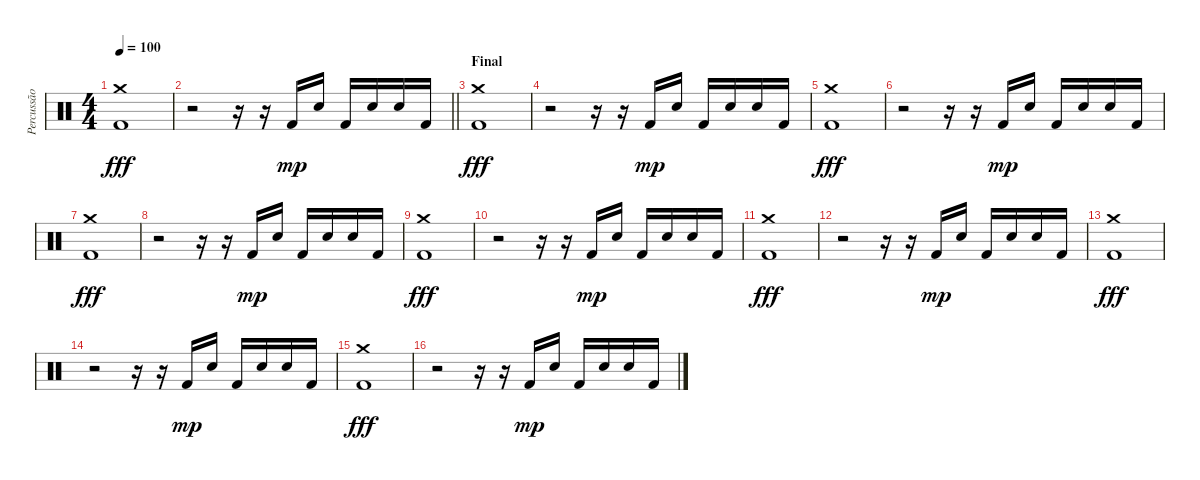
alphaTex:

\track ("Percussão" "Percussão") {instrument percussion}
\staff {score}
\articulation defaults
\ts (4 4)
\tempo 100
\clef neutral
\ks c
("Crash medium (hit)" "Kick (hit) 2").1{dy fff} |
\barLineRight lightlight
r.2 r.16 r.16 "Kick (hit) 2".16{dy mp} "Snare (hit) 2".16 "Kick (hit) 2".16 "Snare (hit) 2".16 "Snare (hit) 2".16 "Kick (hit) 2".16 |
\section ("" "Final")
("Crash medium (hit)" "Kick (hit) 2").1{dy fff} |
r.2 r.16 r.16 "Kick (hit) 2".16{dy mp} "Snare (hit) 2".16 "Kick (hit) 2".16 "Snare (hit) 2".16 "Snare (hit) 2".16 "Kick (hit) 2".16 |
("Crash medium (hit)" "Kick (hit) 2").1{dy fff} |
r.2 r.16 r.16 "Kick (hit) 2".16{dy mp} "Snare (hit) 2".16 "Kick (hit) 2".16 "Snare (hit) 2".16 "Snare (hit) 2".16 "Kick (hit) 2".16 |
("Crash medium (hit)" "Kick (hit) 2").1{dy fff} |
r.2 r.16 r.16 "Kick (hit) 2".16{dy mp} "Snare (hit) 2".16 "Kick (hit) 2".16 "Snare (hit) 2".16 "Snare (hit) 2".16 "Kick (hit) 2".16 |
("Crash medium (hit)" "Kick (hit) 2").1{dy fff} |
r.2 r.16 r.16 "Kick (hit) 2".16{dy mp} "Snare (hit) 2".16 "Kick (hit) 2".16 "Snare (hit) 2".16 "Snare (hit) 2".16 "Kick (hit) 2".16 |
("Crash medium (hit)" "Kick (hit) 2").1{dy fff} |
r.2 r.16 r.16 "Kick (hit) 2".16{dy mp} "Snare (hit) 2".16 "Kick (hit) 2".16 "Snare (hit) 2".16 "Snare (hit) 2".16 "Kick (hit) 2".16 |
("Crash medium (hit)" "Kick (hit) 2").1{dy fff} |
r.2 r.16 r.16 "Kick (hit) 2".16{dy mp} "Snare (hit) 2".16 "Kick (hit) 2".16 "Snare (hit) 2".16 "Snare (hit) 2".16 "Kick (hit) 2".16 |
("Crash medium (hit)" "Kick (hit) 2").1{dy fff} |
r.2 r.16 r.16 "Kick (hit) 2".16{dy mp} "Snare (hit) 2".16 "Kick (hit) 2".16 "Snare (hit) 2".16 "Snare (hit) 2".16 "Kick (hit) 2".16
